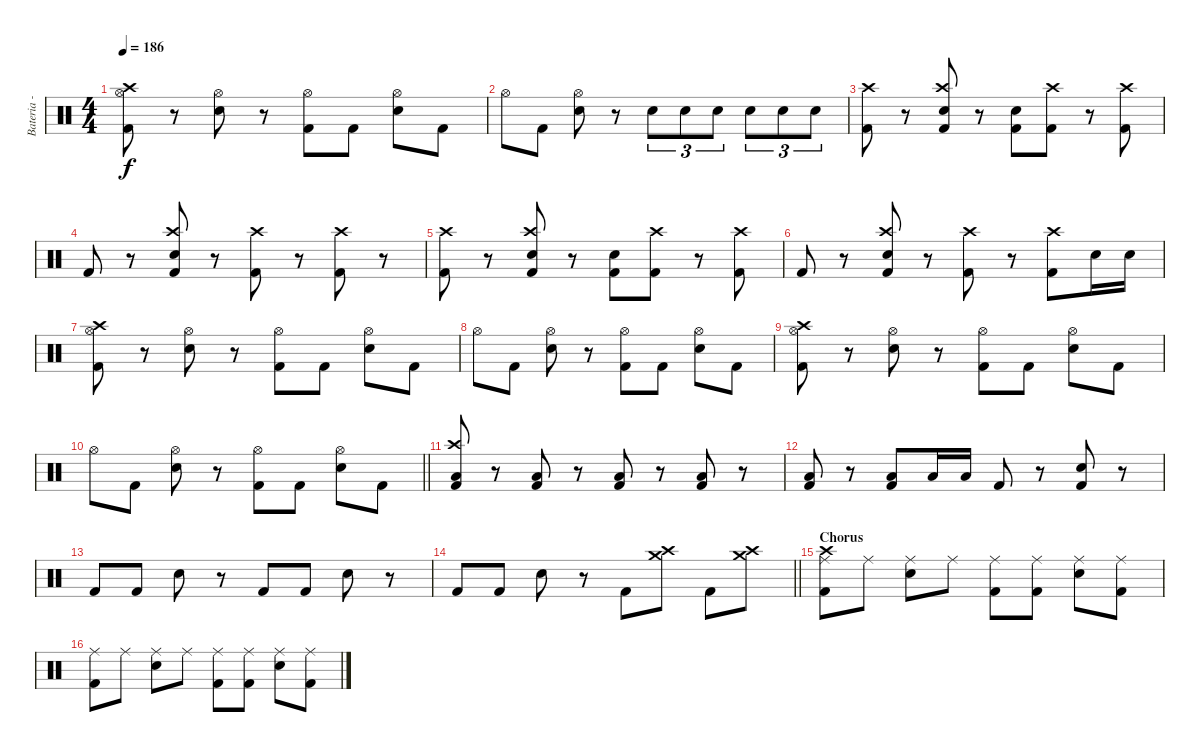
\track ("Bateria - Larzon" "Bateria - ") {instrument percussion}
\staff {score}
\articulation defaults
\ts (4 4)
\tempo 186
\clef neutral
\ks c
("Kick (hit) 2" "Crash high (hit)" "Hi-Hat (open)").8{dy f} r.8 ("Snare (hit) 2" "Hi-Hat (open)").8 r.8 ("Kick (hit) 2" "Hi-Hat (open)").8 "Kick (hit) 2".8 ("Snare (hit) 2" "Hi-Hat (open)").8 "Kick (hit) 2".8 |
"Hi-Hat (open)".8 "Kick (hit) 2".8 ("Snare (hit) 2" "Hi-Hat (open)").8 r.8 "Snare (hit) 2".8{tu (3 2)} "Snare (hit) 2".8{tu (3 2)} "Snare (hit) 2".8{tu (3 2)} "Snare (hit) 2".8{tu (3 2)} "Snare (hit) 2".8{tu (3 2)} "Snare (hit) 2".8{tu (3 2)} |
("Kick (hit) 2" "Crash high (hit)").8 r.8 ("Kick (hit) 2" "Snare (hit) 2" "Crash high (hit)").8 r.8 ("Kick (hit) 2" "Snare (hit) 2").8 ("Kick (hit) 2" "Crash high (hit)").8 r.8 ("Kick (hit) 2" "Crash high (hit)").8 |
"Kick (hit) 2".8 r.8 ("Kick (hit) 2" "Snare (hit) 2" "Crash high (hit)").8 r.8 ("Kick (hit) 2" "Crash high (hit)").8 r.8 ("Kick (hit) 2" "Crash high (hit)").8 r.8 |
("Kick (hit) 2" "Crash high (hit)").8 r.8 ("Kick (hit) 2" "Snare (hit) 2" "Crash high (hit)").8 r.8 ("Kick (hit) 2" "Snare (hit) 2").8 ("Kick (hit) 2" "Crash high (hit)").8 r.8 ("Kick (hit) 2" "Crash high (hit)").8 |
"Kick (hit) 2".8 r.8 ("Kick (hit) 2" "Snare (hit) 2" "Crash high (hit)").8 r.8 ("Kick (hit) 2" "Crash high (hit)").8 r.8 ("Kick (hit) 2" "Crash high (hit)").8 "Snare (hit) 2".16 "Snare (hit) 2".16 |
("Kick (hit) 2" "Crash high (hit)" "Hi-Hat (open)").8 r.8 ("Snare (hit) 2" "Hi-Hat (open)").8 r.8 ("Kick (hit) 2" "Hi-Hat (open)").8 "Kick (hit) 2".8 ("Snare (hit) 2" "Hi-Hat (open)").8 "Kick (hit) 2".8 |
"Hi-Hat (open)".8 "Kick (hit) 2".8 ("Snare (hit) 2" "Hi-Hat (open)").8 r.8 ("Kick (hit) 2" "Hi-Hat (open)").8 "Kick (hit) 2".8 ("Snare (hit) 2" "Hi-Hat (open)").8 "Kick (hit) 2".8 |
("Kick (hit) 2" "Crash high (hit)" "Hi-Hat (open)").8 r.8 ("Snare (hit) 2" "Hi-Hat (open)").8 r.8 ("Kick (hit) 2" "Hi-Hat (open)").8 "Kick (hit) 2".8 ("Snare (hit) 2" "Hi-Hat (open)").8 "Kick (hit) 2".8 |
\barLineRight lightlight "Hi-Hat (open)".8 "Kick (hit) 2".8
("Snare (hit) 2" "Hi-Hat (open)").8 r.8 ("Kick (hit) 2" "Hi-Hat (open)").8 "Kick (hit) 2".8 ("Snare (hit) 2" "Hi-Hat (open)").8 "Kick (hit) 2".8 |
("Kick (hit) 2" "Low Floor Tom (hit)" "Crash high (hit)").8 r.8 ("Kick (hit) 2" "Low Floor Tom (hit)").8 r.8 ("Kick (hit) 2" "Low Floor Tom (hit)").8 r.8 ("Kick (hit) 2" "Low Floor Tom (hit)").8 r.8 |
("Kick (hit) 2" "Low Floor Tom (hit)").8 r.8 ("Kick (hit) 2" "Low Floor Tom (hit)").8 "Low Floor Tom (hit)".16 "Low Floor Tom (hit)".16 "Kick (hit) 2".8 r.8 ("Kick (hit) 2" "Snare (hit) 2").8 r.8 |
"Kick (hit) 2".8 "Kick (hit) 2".8 "Snare (hit) 2".8 r.8 "Kick (hit) 2".8 "Kick (hit) 2".8 "Snare (hit) 2".8 r.8 |
\barLineRight lightlight "Kick (hit) 2".8 "Kick (hit) 2".8 "Snare (hit) 2".8
r.8 "Kick (hit) 2".8 ("Crash high (hit)" "Crash medium (hit)").8 "Kick (hit) 2".8 ("Crash high (hit)" "Crash medium (hit)").8 |
\section ("" "Chorus")
("Kick (hit) 2" "Crash high (hit)" "Ride (middle)").8 "Ride (middle)".8 ("Snare (hit) 2" "Ride (middle)").8 "Ride (middle)".8 ("Kick (hit) 2" "Ride (middle)").8 ("Kick (hit) 2" "Ride (middle)").8 ("Snare (hit) 2" "Ride (middle)").8 ("Kick (hit) 2" "Ride (middle)").8 |
("Kick (hit) 2" "Ride (middle)").8 "Ride (middle)".8 ("Snare (hit) 2" "Ride (middle)").8 "Ride (middle)".8 ("Kick (hit) 2" "Ride (middle)").8 ("Kick (hit) 2" "Ride (middle)").8 ("Snare (hit) 2" "Ride (middle)").8 ("Kick (hit) 2" "Ride (middle)").8
